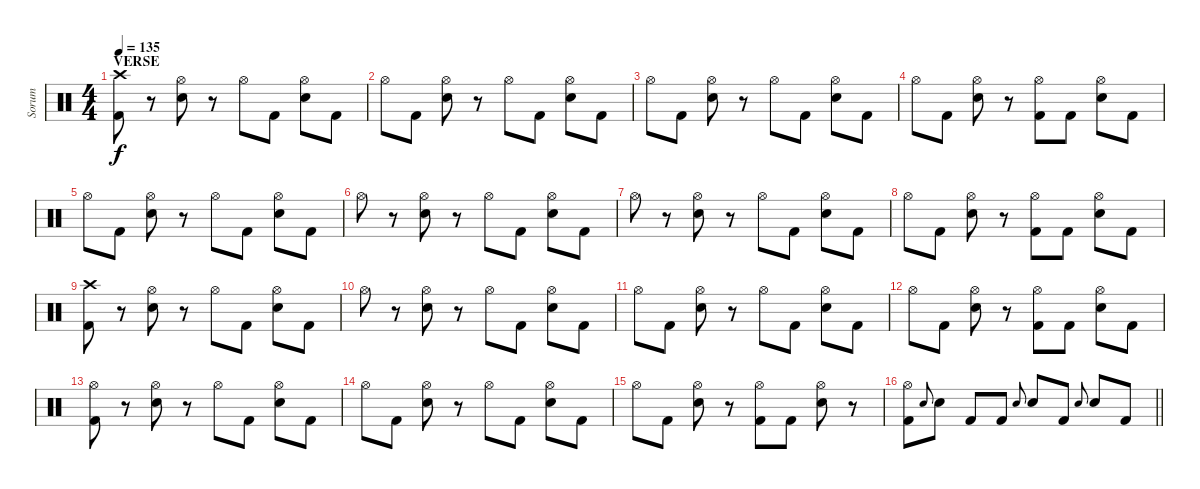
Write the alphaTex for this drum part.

\track ("Sorum" "Sorum") {instrument percussion}
\staff {score}
\articulation defaults
\ts (4 4)
\section ("" "VERSE")
\tempo 135
\clef neutral
\ks c
("Crash high (hit)" "Kick (hit) 2").8{dy f} r.8 ("Electric Snare (hit)" "Hi-Hat (open)").8 r.8 "Hi-Hat (open)".8 "Kick (hit) 2".8 ("Electric Snare (hit)" "Hi-Hat (open)").8 "Kick (hit) 2".8 |
"Hi-Hat (open)".8 "Kick (hit) 2".8 ("Electric Snare (hit)" "Hi-Hat (open)").8 r.8 "Hi-Hat (open)".8 "Kick (hit) 2".8 ("Electric Snare (hit)" "Hi-Hat (open)").8 "Kick (hit) 2".8 |
"Hi-Hat (open)".8 "Kick (hit) 2".8 ("Electric Snare (hit)" "Hi-Hat (open)").8 r.8 "Hi-Hat (open)".8 "Kick (hit) 2".8 ("Electric Snare (hit)" "Hi-Hat (open)").8 "Kick (hit) 2".8 |
"Hi-Hat (open)".8 "Kick (hit) 2".8 ("Electric Snare (hit)" "Hi-Hat (open)").8 r.8 ("Kick (hit) 2" "Hi-Hat (open)").8 "Kick (hit) 2".8 ("Electric Snare (hit)" "Hi-Hat (open)").8 "Kick (hit) 2".8 |
"Hi-Hat (open)".8 "Kick (hit) 2".8 ("Electric Snare (hit)" "Hi-Hat (open)").8 r.8 "Hi-Hat (open)".8 "Kick (hit) 2".8 ("Electric Snare (hit)" "Hi-Hat (open)").8 "Kick (hit) 2".8 |
"Hi-Hat (open)".8 r.8 ("Electric Snare (hit)" "Hi-Hat (open)").8 r.8 "Hi-Hat (open)".8 "Kick (hit) 2".8 ("Electric Snare (hit)" "Hi-Hat (open)").8 "Kick (hit) 2".8 |
"Hi-Hat (open)".8 r.8 ("Electric Snare (hit)" "Hi-Hat (open)").8 r.8 "Hi-Hat (open)".8 "Kick (hit) 2".8 ("Electric Snare (hit)" "Hi-Hat (open)").8 "Kick (hit) 2".8 |
"Hi-Hat (open)".8 "Kick (hit) 2".8 ("Electric Snare (hit)" "Hi-Hat (open)").8 r.8 ("Kick (hit) 2" "Hi-Hat (open)").8 "Kick (hit) 2".8 ("Electric Snare (hit)" "Hi-Hat (open)").8 "Kick (hit) 2".8 |
("Crash high (hit)" "Kick (hit) 2").8 r.8 ("Electric Snare (hit)" "Hi-Hat (open)").8 r.8 "Hi-Hat (open)".8 "Kick (hit) 2".8 ("Electric Snare (hit)" "Hi-Hat (open)").8 "Kick (hit) 2".8 |
"Hi-Hat (open)".8 r.8 ("Electric Snare (hit)" "Hi-Hat (open)").8 r.8 "Hi-Hat (open)".8 "Kick (hit) 2".8 ("Electric Snare (hit)" "Hi-Hat (open)").8 "Kick (hit) 2".8 |
"Hi-Hat (open)".8 "Kick (hit) 2".8 ("Electric Snare (hit)" "Hi-Hat (open)").8 r.8 "Hi-Hat (open)".8 "Kick (hit) 2".8 ("Electric Snare (hit)" "Hi-Hat (open)").8 "Kick (hit) 2".8 |
"Hi-Hat (open)".8 "Kick (hit) 2".8 ("Electric Snare (hit)" "Hi-Hat (open)").8 r.8 ("Kick (hit) 2" "Hi-Hat (open)").8 "Kick (hit) 2".8 ("Electric Snare (hit)" "Hi-Hat (open)").8 "Kick (hit) 2".8 |
("Kick (hit) 2" "Hi-Hat (open)").8 r.8 ("Electric Snare (hit)" "Hi-Hat (open)").8 r.8 "Hi-Hat (open)".8 "Kick (hit) 2".8 ("Electric Snare (hit)" "Hi-Hat (open)").8 "Kick (hit) 2".8 |
"Hi-Hat (open)".8 "Kick (hit) 2".8 ("Electric Snare (hit)" "Hi-Hat (open)").8 r.8 "Hi-Hat (open)".8 "Kick (hit) 2".8 ("Electric Snare (hit)" "Hi-Hat (open)").8 "Kick (hit) 2".8 |
"Hi-Hat (open)".8 "Kick (hit) 2".8 ("Electric Snare (hit)" "Hi-Hat (open)").8 r.8 ("Kick (hit) 2" "Hi-Hat (open)").8 "Kick (hit) 2".8 ("Electric Snare (hit)" "Hi-Hat (open)").8 r.8 |
\barLineRight lightlight
("Kick (hit) 2" "Hi-Hat (open)").8 "Electric Snare (hit)".8{gr onbeat} "Electric Snare (hit)".8 "Kick (hit) 2".8 "Kick (hit) 2".8 "Electric Snare (hit)".8{gr onbeat} "Electric Snare (hit)".8 "Kick (hit) 2".8 "Electric Snare (hit)".8{gr onbeat} "Electric Snare (hit)".8 "Kick (hit) 2".8
